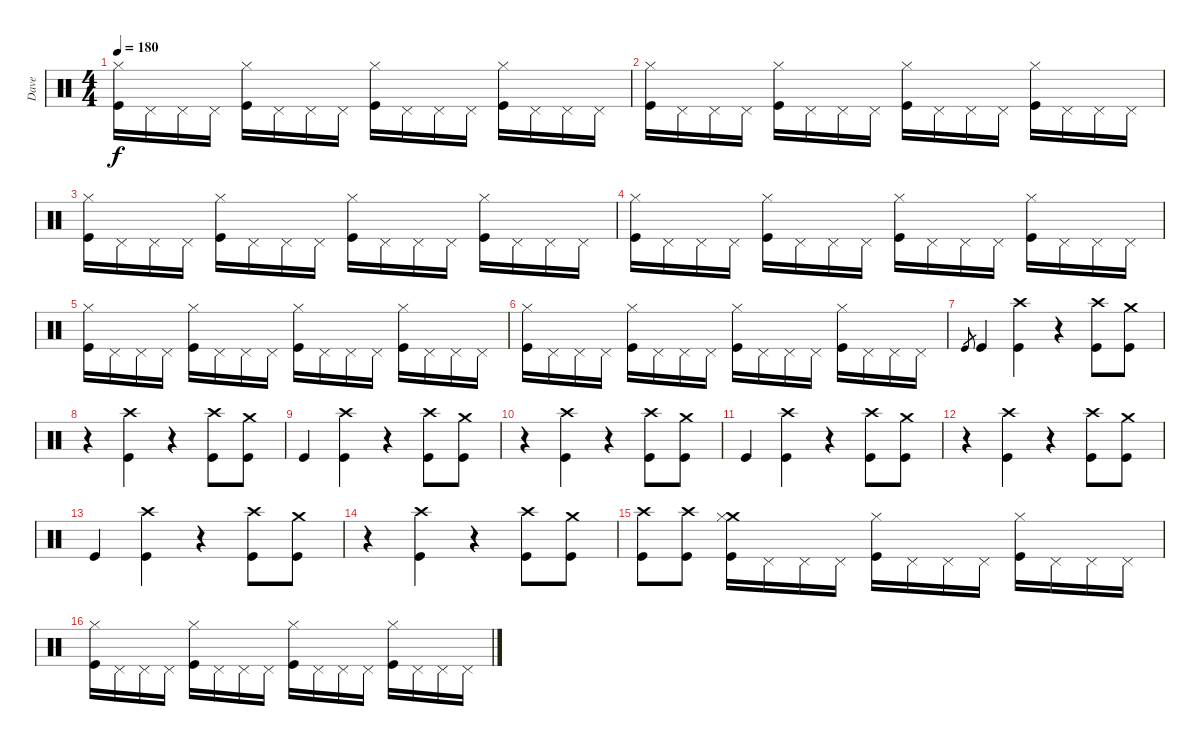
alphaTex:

\track ("Dave" "Dave") {instrument percussion}
\staff {score}
\articulation defaults
\ts (4 4)
\tempo 180
\clef neutral
\ks c
("Kick (hit)" "Hi-Hat (closed)").16{dy f} "Pedal Hi-Hat (hit)".16 "Pedal Hi-Hat (hit)".16 "Pedal Hi-Hat (hit)".16 ("Kick (hit)" "Hi-Hat (closed)").16 "Pedal Hi-Hat (hit)".16 "Pedal Hi-Hat (hit)".16 "Pedal Hi-Hat (hit)".16 ("Kick (hit)" "Hi-Hat (closed)").16 "Pedal Hi-Hat (hit)".16 "Pedal Hi-Hat (hit)".16 "Pedal Hi-Hat (hit)".16 ("Kick (hit)" "Hi-Hat (closed)").16 "Pedal Hi-Hat (hit)".16 "Pedal Hi-Hat (hit)".16 "Pedal Hi-Hat (hit)".16 |
("Kick (hit)" "Hi-Hat (closed)").16 "Pedal Hi-Hat (hit)".16 "Pedal Hi-Hat (hit)".16 "Pedal Hi-Hat (hit)".16 ("Kick (hit)" "Hi-Hat (closed)").16 "Pedal Hi-Hat (hit)".16 "Pedal Hi-Hat (hit)".16 "Pedal Hi-Hat (hit)".16 ("Kick (hit)" "Hi-Hat (closed)").16 "Pedal Hi-Hat (hit)".16 "Pedal Hi-Hat (hit)".16 "Pedal Hi-Hat (hit)".16 ("Kick (hit)" "Hi-Hat (closed)").16 "Pedal Hi-Hat (hit)".16 "Pedal Hi-Hat (hit)".16 "Pedal Hi-Hat (hit)".16 |
("Kick (hit)" "Hi-Hat (closed)").16 "Pedal Hi-Hat (hit)".16 "Pedal Hi-Hat (hit)".16 "Pedal Hi-Hat (hit)".16 ("Kick (hit)" "Hi-Hat (closed)").16 "Pedal Hi-Hat (hit)".16 "Pedal Hi-Hat (hit)".16 "Pedal Hi-Hat (hit)".16 ("Kick (hit)" "Hi-Hat (closed)").16 "Pedal Hi-Hat (hit)".16 "Pedal Hi-Hat (hit)".16 "Pedal Hi-Hat (hit)".16 ("Kick (hit)" "Hi-Hat (closed)").16 "Pedal Hi-Hat (hit)".16 "Pedal Hi-Hat (hit)".16 "Pedal Hi-Hat (hit)".16 |
("Kick (hit)" "Hi-Hat (closed)").16 "Pedal Hi-Hat (hit)".16 "Pedal Hi-Hat (hit)".16 "Pedal Hi-Hat (hit)".16 ("Kick (hit)" "Hi-Hat (closed)").16 "Pedal Hi-Hat (hit)".16 "Pedal Hi-Hat (hit)".16 "Pedal Hi-Hat (hit)".16 ("Kick (hit)" "Hi-Hat (closed)").16 "Pedal Hi-Hat (hit)".16 "Pedal Hi-Hat (hit)".16 "Pedal Hi-Hat (hit)".16 ("Kick (hit)" "Hi-Hat (closed)").16 "Pedal Hi-Hat (hit)".16 "Pedal Hi-Hat (hit)".16 "Pedal Hi-Hat (hit)".16 |
("Kick (hit)" "Hi-Hat (closed)").16 "Pedal Hi-Hat (hit)".16 "Pedal Hi-Hat (hit)".16 "Pedal Hi-Hat (hit)".16 ("Kick (hit)" "Hi-Hat (closed)").16 "Pedal Hi-Hat (hit)".16 "Pedal Hi-Hat (hit)".16 "Pedal Hi-Hat (hit)".16 ("Kick (hit)" "Hi-Hat (closed)").16 "Pedal Hi-Hat (hit)".16 "Pedal Hi-Hat (hit)".16 "Pedal Hi-Hat (hit)".16 ("Kick (hit)" "Hi-Hat (closed)").16 "Pedal Hi-Hat (hit)".16 "Pedal Hi-Hat (hit)".16 "Pedal Hi-Hat (hit)".16 |
("Kick (hit)" "Hi-Hat (closed)").16 "Pedal Hi-Hat (hit)".16 "Pedal Hi-Hat (hit)".16 "Pedal Hi-Hat (hit)".16 ("Kick (hit)" "Hi-Hat (closed)").16 "Pedal Hi-Hat (hit)".16 "Pedal Hi-Hat (hit)".16 "Pedal Hi-Hat (hit)".16 ("Kick (hit)" "Hi-Hat (closed)").16 "Pedal Hi-Hat (hit)".16 "Pedal Hi-Hat (hit)".16 "Pedal Hi-Hat (hit)".16 ("Kick (hit)" "Hi-Hat (closed)").16 "Pedal Hi-Hat (hit)".16 "Pedal Hi-Hat (hit)".16 "Pedal Hi-Hat (hit)".16 |
"Kick (hit)".8{gr} "Kick (hit)".4 ("Crash high (hit)" "Kick (hit)").4 r.4 ("Crash high (hit)" "Kick (hit)").8 ("Crash medium (hit)" "Kick (hit)").8 |
r.4 ("Crash high (hit)" "Kick (hit)").4 r.4 ("Crash high (hit)" "Kick (hit)").8 ("Crash medium (hit)" "Kick (hit)").8 |
"Kick (hit)".4 ("Crash high (hit)" "Kick (hit)").4 r.4 ("Crash high (hit)" "Kick (hit)").8 ("Crash medium (hit)" "Kick (hit)").8 |
r.4 ("Crash high (hit)" "Kick (hit)").4 r.4 ("Crash high (hit)" "Kick (hit)").8 ("Crash medium (hit)" "Kick (hit)").8 |
"Kick (hit)".4 ("Crash high (hit)" "Kick (hit)").4 r.4 ("Crash high (hit)" "Kick (hit)").8 ("Crash medium (hit)" "Kick (hit)").8 |
r.4 ("Crash high (hit)" "Kick (hit)").4 r.4 ("Crash high (hit)" "Kick (hit)").8 ("Crash medium (hit)" "Kick (hit)").8 |
"Kick (hit)".4 ("Crash high (hit)" "Kick (hit)").4 r.4 ("Crash high (hit)" "Kick (hit)").8 ("Crash medium (hit)" "Kick (hit)").8 |
r.4 ("Crash high (hit)" "Kick (hit)").4 r.4 ("Crash high (hit)" "Kick (hit)").8 ("Crash medium (hit)" "Kick (hit)").8 |
("Kick (hit)" "Crash high (hit)").8 ("Kick (hit)" "Crash high (hit)").8 ("Crash medium (hit)" "Kick (hit)" "Hi-Hat (closed)").16 "Pedal Hi-Hat (hit)".16 "Pedal Hi-Hat (hit)".16 "Pedal Hi-Hat (hit)".16 ("Kick (hit)" "Hi-Hat (closed)").16 "Pedal Hi-Hat (hit)".16 "Pedal Hi-Hat (hit)".16 "Pedal Hi-Hat (hit)".16 ("Kick (hit)" "Hi-Hat (closed)").16 "Pedal Hi-Hat (hit)".16 "Pedal Hi-Hat (hit)".16 "Pedal Hi-Hat (hit)".16 |
("Kick (hit)" "Hi-Hat (closed)").16 "Pedal Hi-Hat (hit)".16 "Pedal Hi-Hat (hit)".16 "Pedal Hi-Hat (hit)".16 ("Kick (hit)" "Hi-Hat (closed)").16 "Pedal Hi-Hat (hit)".16 "Pedal Hi-Hat (hit)".16 "Pedal Hi-Hat (hit)".16 ("Kick (hit)" "Hi-Hat (closed)").16 "Pedal Hi-Hat (hit)".16 "Pedal Hi-Hat (hit)".16 "Pedal Hi-Hat (hit)".16 ("Kick (hit)" "Hi-Hat (closed)").16 "Pedal Hi-Hat (hit)".16 "Pedal Hi-Hat (hit)".16 "Pedal Hi-Hat (hit)".16
